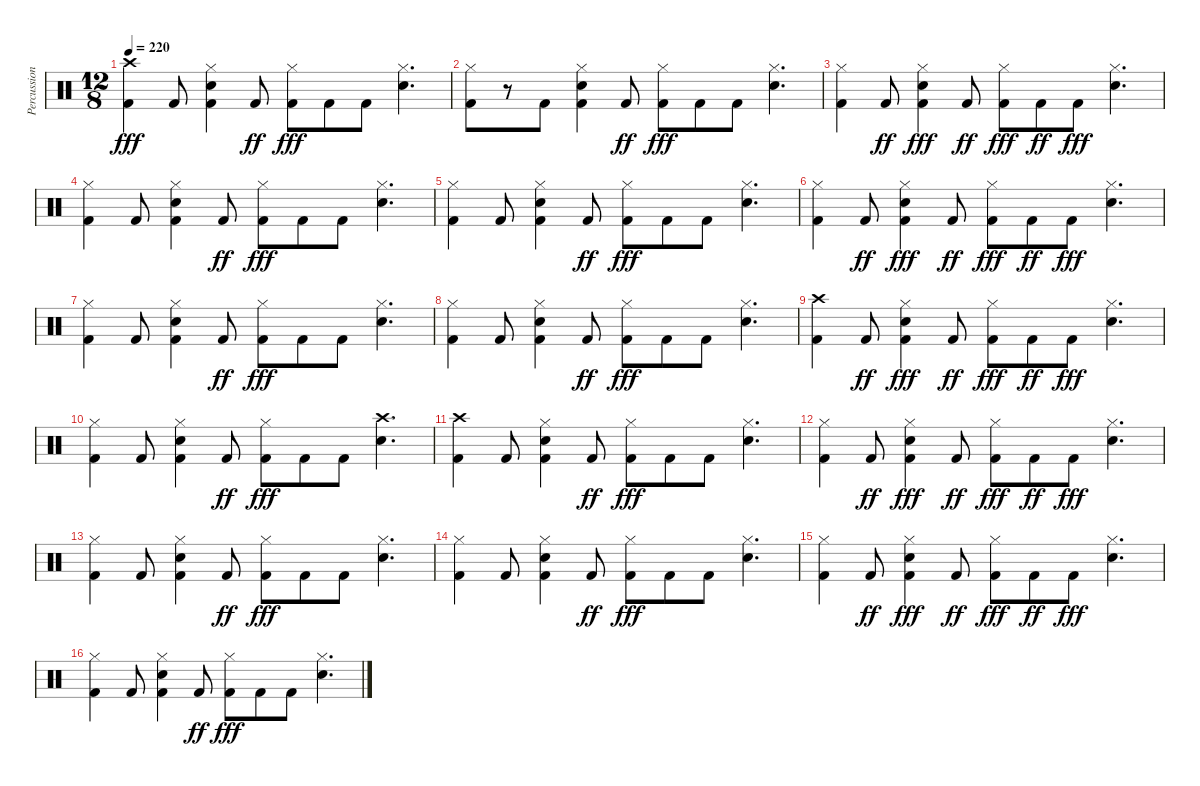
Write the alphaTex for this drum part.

\track ("Percussion" "Percussion") {instrument percussion}
\staff {score}
\articulation defaults
\ts (12 8)
\tempo 220
\clef neutral
\ks c
("Kick (hit) 2" "Crash high (hit)").4{dy fff} "Kick (hit) 2".8 ("Kick (hit) 2" "Snare (hit) 2" "Hi-Hat (closed)").4 "Kick (hit) 2".8{dy ff} ("Kick (hit) 2" "Hi-Hat (closed)").8{dy fff} "Kick (hit) 2".8 "Kick (hit) 2".8 ("Snare (hit) 2" "Hi-Hat (closed)").4{d} |
("Kick (hit) 2" "Hi-Hat (closed)").8 r.8 "Kick (hit) 2".8 ("Kick (hit) 2" "Snare (hit) 2" "Hi-Hat (closed)").4 "Kick (hit) 2".8{dy ff} ("Kick (hit) 2" "Hi-Hat (closed)").8{dy fff} "Kick (hit) 2".8 "Kick (hit) 2".8 ("Snare (hit) 2" "Hi-Hat (closed)").4{d} |
("Kick (hit) 2" "Hi-Hat (closed)").4 "Kick (hit) 2".8{dy ff} ("Kick (hit) 2" "Snare (hit) 2" "Hi-Hat (closed)").4{dy fff} "Kick (hit) 2".8{dy ff} ("Kick (hit) 2" "Hi-Hat (closed)").8{dy fff} "Kick (hit) 2".8{dy ff} "Kick (hit) 2".8{dy fff} ("Snare (hit) 2" "Hi-Hat (closed)").4{d} |
("Kick (hit) 2" "Hi-Hat (closed)").4 "Kick (hit) 2".8 ("Kick (hit) 2" "Snare (hit) 2" "Hi-Hat (closed)").4 "Kick (hit) 2".8{dy ff} ("Kick (hit) 2" "Hi-Hat (closed)").8{dy fff} "Kick (hit) 2".8 "Kick (hit) 2".8 ("Snare (hit) 2" "Hi-Hat (closed)").4{d} |
("Kick (hit) 2" "Hi-Hat (closed)").4 "Kick (hit) 2".8 ("Kick (hit) 2" "Snare (hit) 2" "Hi-Hat (closed)").4 "Kick (hit) 2".8{dy ff} ("Kick (hit) 2" "Hi-Hat (closed)").8{dy fff} "Kick (hit) 2".8 "Kick (hit) 2".8 ("Snare (hit) 2" "Hi-Hat (closed)").4{d} |
("Kick (hit) 2" "Hi-Hat (closed)").4 "Kick (hit) 2".8{dy ff} ("Kick (hit) 2" "Snare (hit) 2" "Hi-Hat (closed)").4{dy fff} "Kick (hit) 2".8{dy ff} ("Kick (hit) 2" "Hi-Hat (closed)").8{dy fff} "Kick (hit) 2".8{dy ff} "Kick (hit) 2".8{dy fff} ("Snare (hit) 2" "Hi-Hat (closed)").4{d} |
("Kick (hit) 2" "Hi-Hat (closed)").4 "Kick (hit) 2".8 ("Kick (hit) 2" "Snare (hit) 2" "Hi-Hat (closed)").4 "Kick (hit) 2".8{dy ff} ("Kick (hit) 2" "Hi-Hat (closed)").8{dy fff} "Kick (hit) 2".8 "Kick (hit) 2".8 ("Snare (hit) 2" "Hi-Hat (closed)").4{d} |
("Kick (hit) 2" "Hi-Hat (closed)").4 "Kick (hit) 2".8 ("Kick (hit) 2" "Snare (hit) 2" "Hi-Hat (closed)").4 "Kick (hit) 2".8{dy ff} ("Kick (hit) 2" "Hi-Hat (closed)").8{dy fff} "Kick (hit) 2".8 "Kick (hit) 2".8 ("Snare (hit) 2" "Hi-Hat (closed)").4{d} |
("Kick (hit) 2" "Crash high (hit)").4 "Kick (hit) 2".8{dy ff} ("Kick (hit) 2" "Snare (hit) 2" "Hi-Hat (closed)").4{dy fff} "Kick (hit) 2".8{dy ff} ("Kick (hit) 2" "Hi-Hat (closed)").8{dy fff} "Kick (hit) 2".8{dy ff} "Kick (hit) 2".8{dy fff} ("Snare (hit) 2" "Hi-Hat (closed)").4{d} |
("Kick (hit) 2" "Hi-Hat (closed)").4 "Kick (hit) 2".8 ("Kick (hit) 2" "Snare (hit) 2" "Hi-Hat (closed)").4 "Kick (hit) 2".8{dy ff} ("Kick (hit) 2" "Hi-Hat (closed)").8{dy fff} "Kick (hit) 2".8 "Kick (hit) 2".8 ("Snare (hit) 2" "Crash high (hit)").4{d} |
("Kick (hit) 2" "Crash high (hit)").4 "Kick (hit) 2".8 ("Kick (hit) 2" "Snare (hit) 2" "Hi-Hat (closed)").4 "Kick (hit) 2".8{dy ff} ("Kick (hit) 2" "Hi-Hat (closed)").8{dy fff} "Kick (hit) 2".8 "Kick (hit) 2".8 ("Snare (hit) 2" "Hi-Hat (closed)").4{d} |
("Kick (hit) 2" "Hi-Hat (closed)").4 "Kick (hit) 2".8{dy ff} ("Kick (hit) 2" "Snare (hit) 2" "Hi-Hat (closed)").4{dy fff} "Kick (hit) 2".8{dy ff} ("Kick (hit) 2" "Hi-Hat (closed)").8{dy fff} "Kick (hit) 2".8{dy ff} "Kick (hit) 2".8{dy fff} ("Snare (hit) 2" "Hi-Hat (closed)").4{d} |
("Kick (hit) 2" "Hi-Hat (closed)").4 "Kick (hit) 2".8 ("Kick (hit) 2" "Snare (hit) 2" "Hi-Hat (closed)").4 "Kick (hit) 2".8{dy ff} ("Kick (hit) 2" "Hi-Hat (closed)").8{dy fff} "Kick (hit) 2".8 "Kick (hit) 2".8 ("Snare (hit) 2" "Hi-Hat (closed)").4{d} |
("Kick (hit) 2" "Hi-Hat (closed)").4 "Kick (hit) 2".8 ("Kick (hit) 2" "Snare (hit) 2" "Hi-Hat (closed)").4 "Kick (hit) 2".8{dy ff} ("Kick (hit) 2" "Hi-Hat (closed)").8{dy fff} "Kick (hit) 2".8 "Kick (hit) 2".8 ("Snare (hit) 2" "Hi-Hat (closed)").4{d} |
("Kick (hit) 2" "Hi-Hat (closed)").4 "Kick (hit) 2".8{dy ff} ("Kick (hit) 2" "Snare (hit) 2" "Hi-Hat (closed)").4{dy fff} "Kick (hit) 2".8{dy ff} ("Kick (hit) 2" "Hi-Hat (closed)").8{dy fff} "Kick (hit) 2".8{dy ff} "Kick (hit) 2".8{dy fff} ("Snare (hit) 2" "Hi-Hat (closed)").4{d} |
("Kick (hit) 2" "Hi-Hat (closed)").4 "Kick (hit) 2".8 ("Kick (hit) 2" "Snare (hit) 2" "Hi-Hat (closed)").4 "Kick (hit) 2".8{dy ff} ("Kick (hit) 2" "Hi-Hat (closed)").8{dy fff} "Kick (hit) 2".8 "Kick (hit) 2".8 ("Snare (hit) 2" "Hi-Hat (closed)").4{d}
